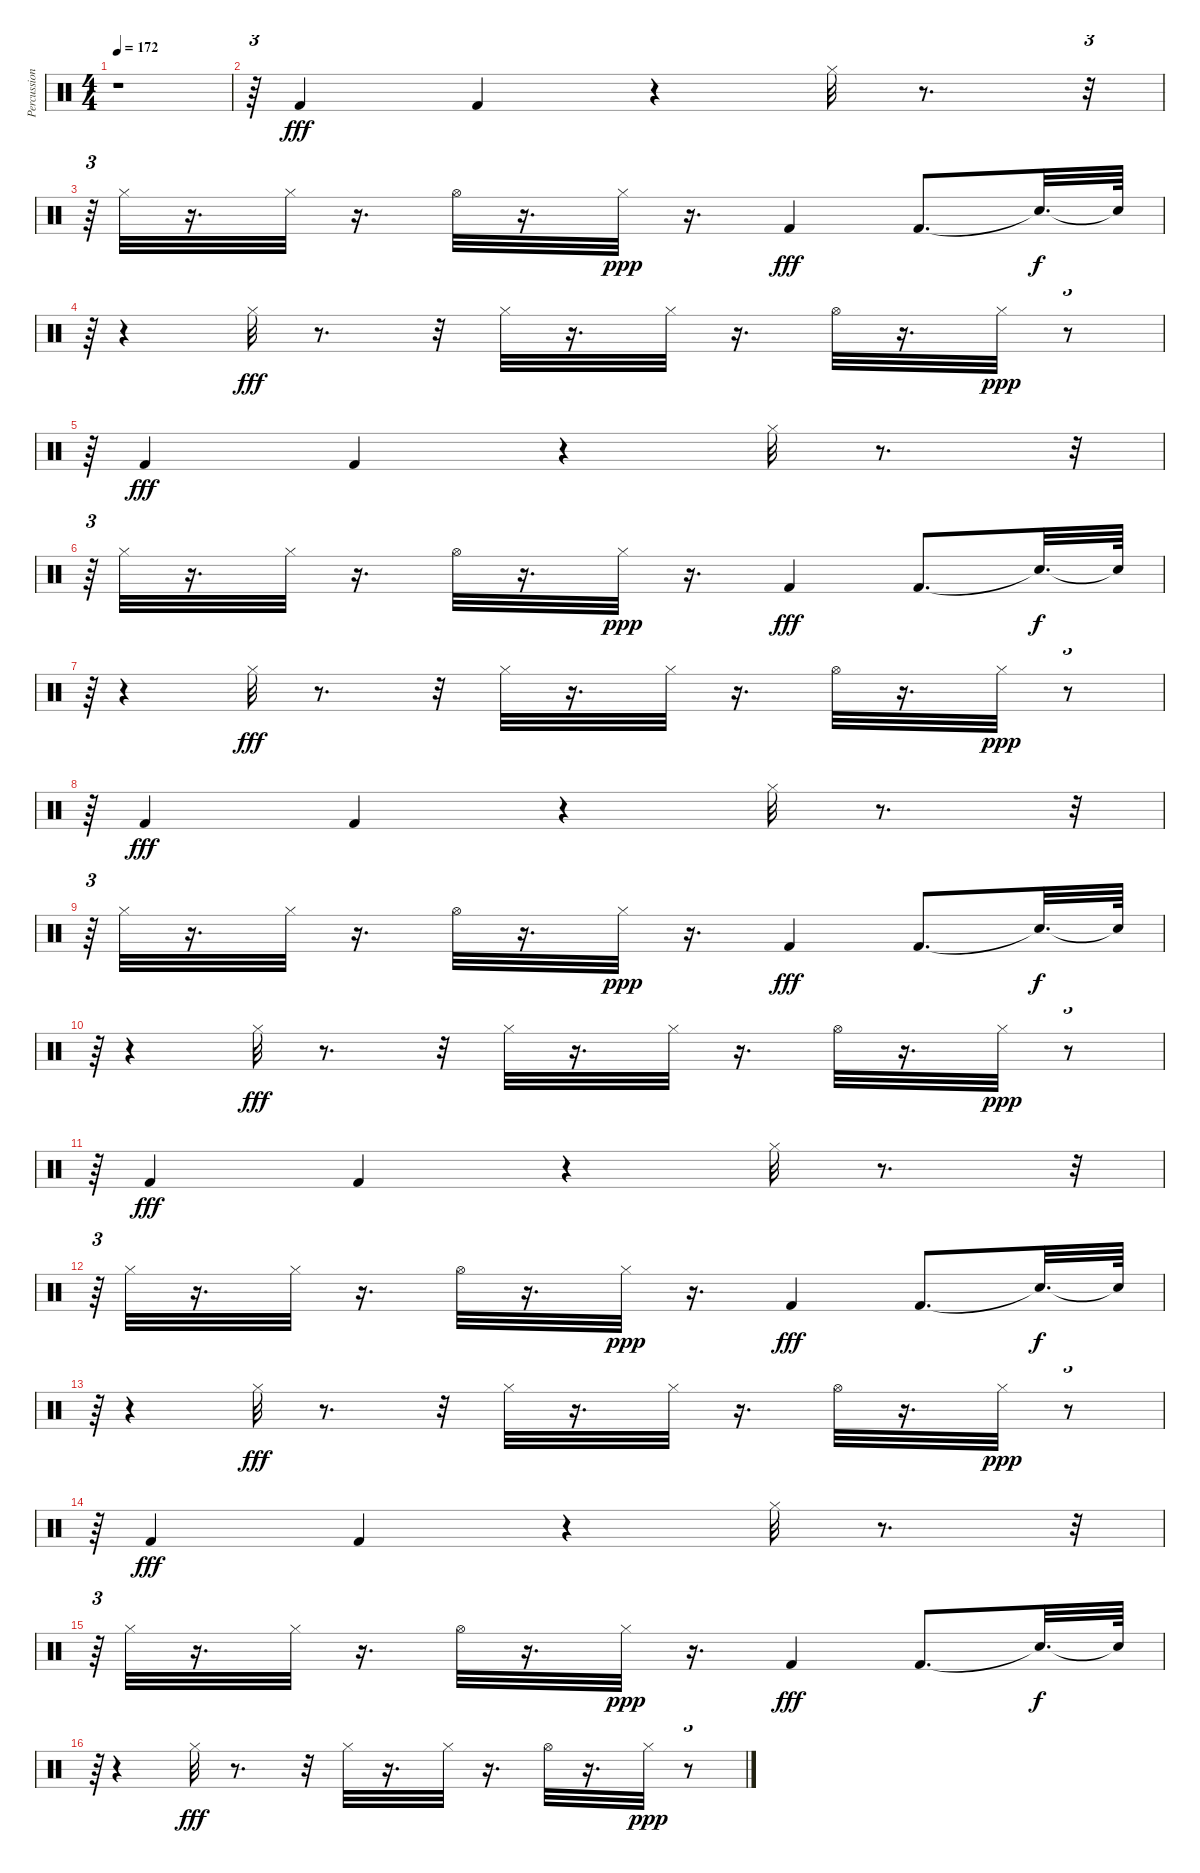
\track ("Percussioni" "Percussion") {instrument percussion}
\staff {score}
\articulation defaults
\ts (4 4)
\tempo 172
\clef neutral
\ks c
r.1{dy p} |
r.64{tu (3 2)} "Kick (hit) 2".4{dy fff} "Kick (hit) 2".4 r.4 "Hi-Hat (closed)".32 r.8{d} r.32{tu (3 2)} |
r.64{tu (3 2)} "Hi-Hat (closed)".32 r.16{d} "Hi-Hat (closed)".32 r.16{d} "Hi-Hat (open)".32 r.16{d} "Hi-Hat (closed)".32{dy ppp} r.16{d} "Kick (hit) 2".4{dy fff} "Kick (hit) 2".8{d} "Snare (hit)"{t}.32{d dy f} "Snare (hit)"{t}.64 |
r.64{tu (3 2)} r.4 "Hi-Hat (closed)".32{dy fff} r.8{d} r.32 "Hi-Hat (closed)".32 r.16{d} "Hi-Hat (closed)".32 r.16{d} "Hi-Hat (open)".32 r.16{d} "Hi-Hat (closed)".32{dy ppp} r.8{tu (3 2)} |
r.64{tu (3 2)} "Kick (hit) 2".4{dy fff} "Kick (hit) 2".4 r.4 "Hi-Hat (closed)".32 r.8{d} r.32{tu (3 2)} |
r.64{tu (3 2)} "Hi-Hat (closed)".32 r.16{d} "Hi-Hat (closed)".32 r.16{d} "Hi-Hat (open)".32 r.16{d} "Hi-Hat (closed)".32{dy ppp} r.16{d} "Kick (hit) 2".4{dy fff} "Kick (hit) 2".8{d} "Snare (hit)"{t}.32{d dy f} "Snare (hit)"{t}.64 |
r.64{tu (3 2)} r.4 "Hi-Hat (closed)".32{dy fff} r.8{d} r.32 "Hi-Hat (closed)".32 r.16{d} "Hi-Hat (closed)".32 r.16{d} "Hi-Hat (open)".32 r.16{d} "Hi-Hat (closed)".32{dy ppp} r.8{tu (3 2)} |
r.64{tu (3 2)} "Kick (hit) 2".4{dy fff} "Kick (hit) 2".4 r.4 "Hi-Hat (closed)".32 r.8{d} r.32{tu (3 2)} |
r.64{tu (3 2)} "Hi-Hat (closed)".32 r.16{d} "Hi-Hat (closed)".32 r.16{d} "Hi-Hat (open)".32 r.16{d} "Hi-Hat (closed)".32{dy ppp} r.16{d} "Kick (hit) 2".4{dy fff} "Kick (hit) 2".8{d} "Snare (hit)"{t}.32{d dy f} "Snare (hit)"{t}.64 |
r.64{tu (3 2)} r.4 "Hi-Hat (closed)".32{dy fff} r.8{d} r.32 "Hi-Hat (closed)".32 r.16{d} "Hi-Hat (closed)".32 r.16{d} "Hi-Hat (open)".32 r.16{d} "Hi-Hat (closed)".32{dy ppp} r.8{tu (3 2)} |
r.64{tu (3 2)} "Kick (hit) 2".4{dy fff} "Kick (hit) 2".4 r.4 "Hi-Hat (closed)".32 r.8{d} r.32{tu (3 2)} |
r.64{tu (3 2)} "Hi-Hat (closed)".32 r.16{d} "Hi-Hat (closed)".32 r.16{d} "Hi-Hat (open)".32 r.16{d} "Hi-Hat (closed)".32{dy ppp} r.16{d} "Kick (hit) 2".4{dy fff} "Kick (hit) 2".8{d} "Snare (hit)"{t}.32{d dy f} "Snare (hit)"{t}.64 |
r.64{tu (3 2)} r.4 "Hi-Hat (closed)".32{dy fff} r.8{d} r.32 "Hi-Hat (closed)".32 r.16{d} "Hi-Hat (closed)".32 r.16{d} "Hi-Hat (open)".32 r.16{d} "Hi-Hat (closed)".32{dy ppp} r.8{tu (3 2)} |
r.64{tu (3 2)} "Kick (hit) 2".4{dy fff} "Kick (hit) 2".4 r.4 "Hi-Hat (closed)".32 r.8{d} r.32{tu (3 2)} |
r.64{tu (3 2)} "Hi-Hat (closed)".32 r.16{d} "Hi-Hat (closed)".32 r.16{d} "Hi-Hat (open)".32 r.16{d} "Hi-Hat (closed)".32{dy ppp} r.16{d} "Kick (hit) 2".4{dy fff} "Kick (hit) 2".8{d} "Snare (hit)"{t}.32{d dy f} "Snare (hit)"{t}.64 |
r.64{tu (3 2)} r.4 "Hi-Hat (closed)".32{dy fff} r.8{d} r.32 "Hi-Hat (closed)".32 r.16{d} "Hi-Hat (closed)".32 r.16{d} "Hi-Hat (open)".32 r.16{d} "Hi-Hat (closed)".32{dy ppp} r.8{tu (3 2)}
